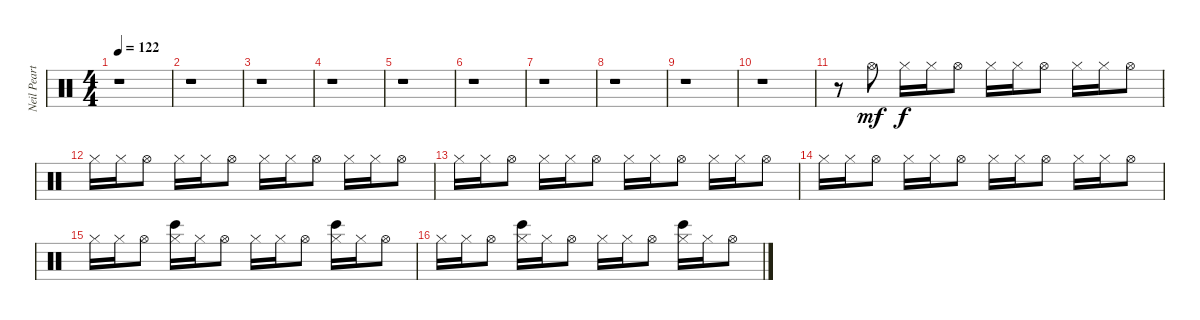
\track ("Neil Peart" "Neil Peart") {instrument percussion}
\staff {score}
\articulation defaults
\ts (4 4)
\tempo 122
\clef neutral
\ks c
r.1{dy mf} |
r.1 |
r.1 |
r.1 |
r.1 |
r.1 |
r.1 |
r.1 |
r.1 |
r.1 |
r.8 "Hi-Hat (open)".8 "Hi-Hat (closed)".16{dy f} "Hi-Hat (closed)".16 "Hi-Hat (open)".8 "Hi-Hat (closed)".16 "Hi-Hat (closed)".16 "Hi-Hat (open)".8 "Hi-Hat (closed)".16 "Hi-Hat (closed)".16 "Hi-Hat (open)".8 |
"Hi-Hat (closed)".16 "Hi-Hat (closed)".16 "Hi-Hat (open)".8 "Hi-Hat (closed)".16 "Hi-Hat (closed)".16 "Hi-Hat (open)".8 "Hi-Hat (closed)".16 "Hi-Hat (closed)".16 "Hi-Hat (open)".8 "Hi-Hat (closed)".16 "Hi-Hat (closed)".16 "Hi-Hat (open)".8 |
"Hi-Hat (closed)".16 "Hi-Hat (closed)".16 "Hi-Hat (open)".8 "Hi-Hat (closed)".16 "Hi-Hat (closed)".16 "Hi-Hat (open)".8 "Hi-Hat (closed)".16 "Hi-Hat (closed)".16 "Hi-Hat (open)".8 "Hi-Hat (closed)".16 "Hi-Hat (closed)".16 "Hi-Hat (open)".8 |
"Hi-Hat (closed)".16 "Hi-Hat (closed)".16 "Hi-Hat (open)".8 "Hi-Hat (closed)".16 "Hi-Hat (closed)".16 "Hi-Hat (open)".8 "Hi-Hat (closed)".16 "Hi-Hat (closed)".16 "Hi-Hat (open)".8 "Hi-Hat (closed)".16 "Hi-Hat (closed)".16 "Hi-Hat (open)".8 |
"Hi-Hat (closed)".16 "Hi-Hat (closed)".16 "Hi-Hat (open)".8 ("Hi-Hat (closed)" "Bongo High (hit)").16 "Hi-Hat (closed)".16 "Hi-Hat (open)".8 "Hi-Hat (closed)".16 "Hi-Hat (closed)".16 "Hi-Hat (open)".8 ("Bongo High (hit)" "Hi-Hat (closed)").16 "Hi-Hat (closed)".16 "Hi-Hat (open)".8 |
"Hi-Hat (closed)".16 "Hi-Hat (closed)".16 "Hi-Hat (open)".8 ("Hi-Hat (closed)" "Bongo High (hit)").16 "Hi-Hat (closed)".16 "Hi-Hat (open)".8 "Hi-Hat (closed)".16 "Hi-Hat (closed)".16 "Hi-Hat (open)".8 ("Bongo High (hit)" "Hi-Hat (closed)").16 "Hi-Hat (closed)".16 "Hi-Hat (open)".8
